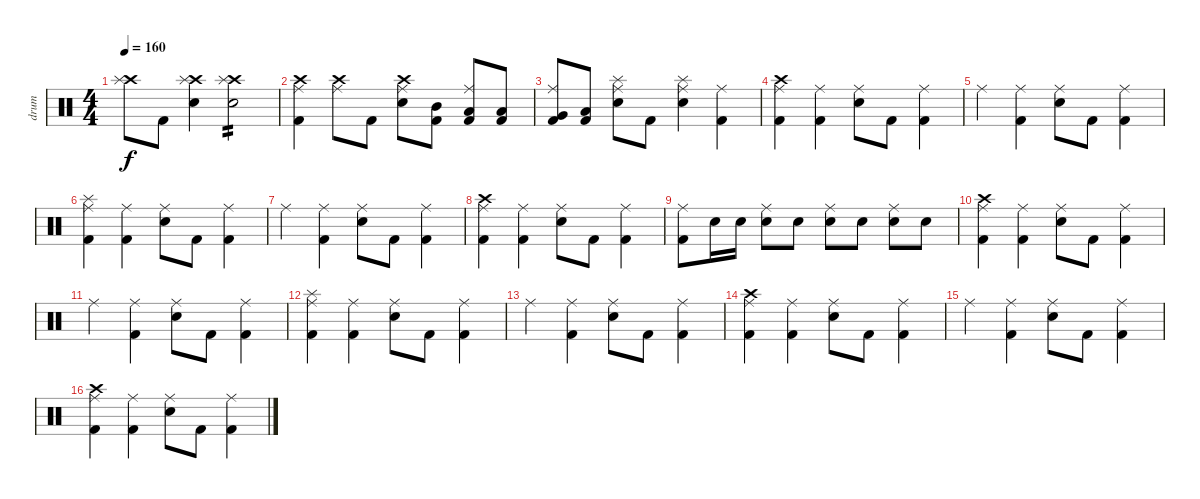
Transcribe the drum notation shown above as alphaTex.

\track ("drum" "drum") {instrument percussion}
\staff {score}
\articulation defaults
\ts (4 4)
\tempo 160
\clef neutral
\ks c
("Crash high (hit)" "Splash (hit)").8{dy f} "Kick (hit) 2".8 ("Crash high (hit)" "Splash (hit)" "Electric Snare (hit)").4 ("Crash high (hit)" "Splash (hit)" "Electric Snare (hit)").2{tp 2} |
("Crash high (hit)" "Ride (middle)" "Kick (hit) 2").4 ("Crash high (hit)" "Ride (middle)").8 "Kick (hit) 2".8 ("Crash high (hit)" "Ride (middle)" "Electric Snare (hit)").8 ("Mid Tom (hit)" "Kick (hit) 2").8 ("Ride (middle)" "Low Tom (hit)" "Kick (hit) 2").8 ("Low Tom (hit)" "Kick (hit) 2").8 |
("Ride (middle)" "Very Low Tom (hit)" "Kick (hit) 2").8 ("Low Floor Tom (hit)" "Kick (hit) 2").8 ("Splash (hit)" "Ride (middle)" "Electric Snare (hit)").8 "Kick (hit) 2".8 ("Splash (hit)" "Ride (middle)" "Electric Snare (hit)").4 ("Ride (middle)" "Kick (hit) 2").4 |
("Crash high (hit)" "Ride (middle)" "Kick (hit) 2").4 ("Ride (middle)" "Kick (hit) 2").4 ("Ride (middle)" "Electric Snare (hit)").8 "Kick (hit) 2".8 ("Ride (middle)" "Kick (hit) 2").4 |
"Ride (middle)".4 ("Ride (middle)" "Kick (hit) 2").4 ("Ride (middle)" "Electric Snare (hit)").8 "Kick (hit) 2".8 ("Ride (middle)" "Kick (hit) 2").4 |
("Splash (hit)" "Ride (middle)" "Kick (hit) 2").4 ("Ride (middle)" "Kick (hit) 2").4 ("Ride (middle)" "Electric Snare (hit)").8 "Kick (hit) 2".8 ("Ride (middle)" "Kick (hit) 2").4 |
"Ride (middle)".4 ("Ride (middle)" "Kick (hit) 2").4 ("Ride (middle)" "Electric Snare (hit)").8 "Kick (hit) 2".8 ("Ride (middle)" "Kick (hit) 2").4 |
("Crash high (hit)" "Ride (middle)" "Kick (hit) 2").4 ("Ride (middle)" "Kick (hit) 2").4 ("Ride (middle)" "Electric Snare (hit)").8 "Kick (hit) 2".8 ("Ride (middle)" "Kick (hit) 2").4 |
("Ride (middle)" "Kick (hit) 2").8 "Electric Snare (hit)".16 "Electric Snare (hit)".16 ("Ride (middle)" "Electric Snare (hit)").8 "Electric Snare (hit)".8 ("Ride (middle)" "Electric Snare (hit)").8 "Electric Snare (hit)".8 ("Ride (middle)" "Electric Snare (hit)").8 "Electric Snare (hit)".8 |
("Crash high (hit)" "Ride (middle)" "Kick (hit) 2").4 ("Ride (middle)" "Kick (hit) 2").4 ("Ride (middle)" "Electric Snare (hit)").8 "Kick (hit) 2".8 ("Ride (middle)" "Kick (hit) 2").4 |
"Ride (middle)".4 ("Ride (middle)" "Kick (hit) 2").4 ("Ride (middle)" "Electric Snare (hit)").8 "Kick (hit) 2".8 ("Ride (middle)" "Kick (hit) 2").4 |
("Splash (hit)" "Ride (middle)" "Kick (hit) 2").4 ("Ride (middle)" "Kick (hit) 2").4 ("Ride (middle)" "Electric Snare (hit)").8 "Kick (hit) 2".8 ("Ride (middle)" "Kick (hit) 2").4 |
"Ride (middle)".4 ("Ride (middle)" "Kick (hit) 2").4 ("Ride (middle)" "Electric Snare (hit)").8 "Kick (hit) 2".8 ("Ride (middle)" "Kick (hit) 2").4 |
("Crash high (hit)" "Ride (middle)" "Kick (hit) 2").4 ("Ride (middle)" "Kick (hit) 2").4 ("Ride (middle)" "Electric Snare (hit)").8 "Kick (hit) 2".8 ("Ride (middle)" "Kick (hit) 2").4 |
"Ride (middle)".4 ("Ride (middle)" "Kick (hit) 2").4 ("Ride (middle)" "Electric Snare (hit)").8 "Kick (hit) 2".8 ("Ride (middle)" "Kick (hit) 2").4 |
("Crash high (hit)" "Ride (middle)" "Kick (hit) 2").4 ("Ride (middle)" "Kick (hit) 2").4 ("Ride (middle)" "Electric Snare (hit)").8 "Kick (hit) 2".8 ("Ride (middle)" "Kick (hit) 2").4
